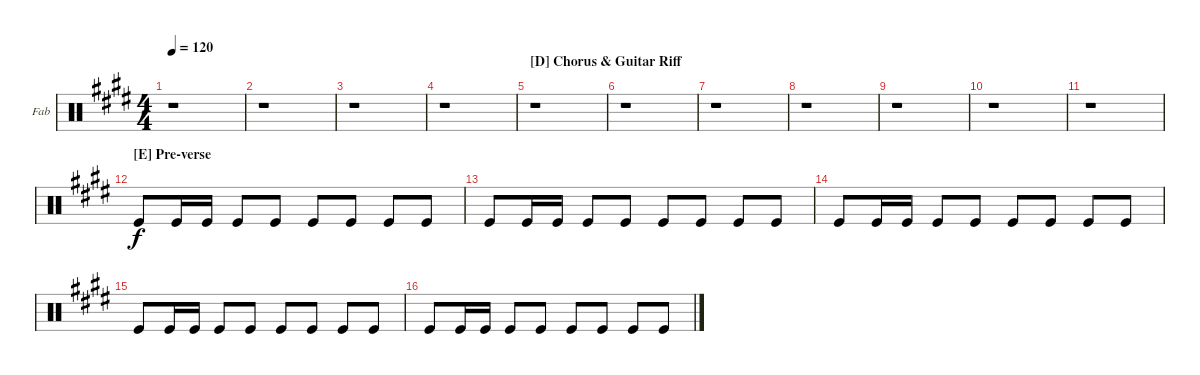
\bracketExtendMode groupsimilarinstruments
\firstSystemTrackNameOrientation horizontal
\otherSystemsTrackNameOrientation horizontal
\track ("Pipe" "Fab") {instrument percussion}
\staff {score}
\articulation defaults
\ts (4 4)
\tempo 120
\clef neutral
\scale
0.333333
\ks e
r.1{dy f} |
\scale
0.333333 r.1 |
\scale
0.333333 r.1 |
\scale
0.333333 r.1 |
\section ("D" "Chorus & Guitar Riff")
\scale
0.333333 r.1 |
\scale
0.333333 r.1 |
\scale
0.333333 r.1 |
\scale
0.333333 r.1 |
\scale
0.333333 r.1 |
\scale
0.333333 r.1 |
\scale
0.333333 r.1 |
\section ("E" "Pre-verse")
\scale
0.333333 "Kick (hit)".8 "Kick (hit)".16 "Kick (hit)".16 "Kick (hit)".8 "Kick (hit)".8 "Kick (hit)".8 "Kick (hit)".8 "Kick (hit)".8 "Kick (hit)".8 |
\scale
0.333333 "Kick (hit)".8 "Kick (hit)".16 "Kick (hit)".16 "Kick (hit)".8 "Kick (hit)".8 "Kick (hit)".8 "Kick (hit)".8 "Kick (hit)".8 "Kick (hit)".8 |
\scale
0.333333 "Kick (hit)".8 "Kick (hit)".16 "Kick (hit)".16 "Kick (hit)".8 "Kick (hit)".8 "Kick (hit)".8 "Kick (hit)".8 "Kick (hit)".8 "Kick (hit)".8 |
\scale
0.333333 "Kick (hit)".8 "Kick (hit)".16 "Kick (hit)".16 "Kick (hit)".8 "Kick (hit)".8 "Kick (hit)".8 "Kick (hit)".8 "Kick (hit)".8 "Kick (hit)".8 |
\scale
0.333333 "Kick (hit)".8 "Kick (hit)".16 "Kick (hit)".16 "Kick (hit)".8 "Kick (hit)".8 "Kick (hit)".8 "Kick (hit)".8 "Kick (hit)".8 "Kick (hit)".8
